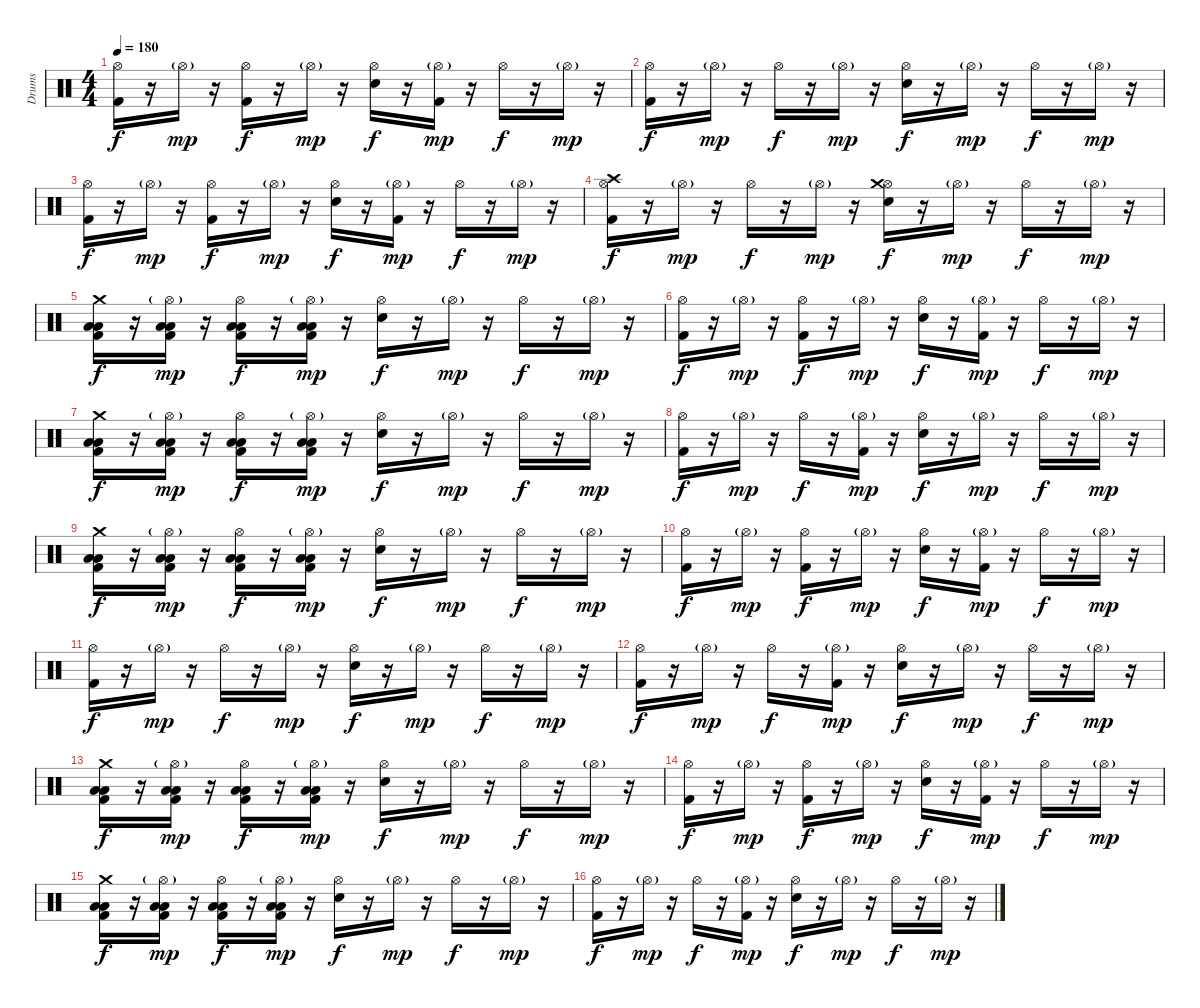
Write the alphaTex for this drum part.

\track ("Drums" "Drums") {instrument percussion}
\staff {score}
\articulation defaults
\ts (4 4)
\tempo 180
\clef neutral
\ks c
("Hi-Hat (open)" "Kick (hit) 2").16{dy f} r.16 "Hi-Hat (open)"{g}.16{dy mp} r.16 ("Hi-Hat (open)" "Kick (hit) 2").16{dy f} r.16 "Hi-Hat (open)"{g}.16{dy mp} r.16 ("Hi-Hat (open)" "Electric Snare (hit)").16{dy f} r.16 ("Hi-Hat (open)"{g} "Kick (hit) 2").16{dy mp} r.16 "Hi-Hat (open)".16{dy f} r.16 "Hi-Hat (open)"{g}.16{dy mp} r.16 |
("Hi-Hat (open)" "Kick (hit) 2").16{dy f} r.16 "Hi-Hat (open)"{g}.16{dy mp} r.16 "Hi-Hat (open)".16{dy f} r.16 "Hi-Hat (open)"{g}.16{dy mp} r.16 ("Hi-Hat (open)" "Electric Snare (hit)").16{dy f} r.16 "Hi-Hat (open)"{g}.16{dy mp} r.16 "Hi-Hat (open)".16{dy f} r.16 "Hi-Hat (open)"{g}.16{dy mp} r.16 |
("Hi-Hat (open)" "Kick (hit) 2").16{dy f} r.16 "Hi-Hat (open)"{g}.16{dy mp} r.16 ("Hi-Hat (open)" "Kick (hit) 2").16{dy f} r.16 "Hi-Hat (open)"{g}.16{dy mp} r.16 ("Hi-Hat (open)" "Electric Snare (hit)").16{dy f} r.16 ("Hi-Hat (open)"{g} "Kick (hit) 2").16{dy mp} r.16 "Hi-Hat (open)".16{dy f} r.16 "Hi-Hat (open)"{g}.16{dy mp} r.16 |
("Hi-Hat (open)" "Kick (hit) 2" "Crash high (hit)").16{dy f} r.16 "Hi-Hat (open)"{g}.16{dy mp} r.16 "Hi-Hat (open)".16{dy f} r.16 "Hi-Hat (open)"{g}.16{dy mp} r.16 ("Hi-Hat (open)" "Electric Snare (hit)" "Crash medium (hit)").16{dy f} r.16 "Hi-Hat (open)"{g}.16{dy mp} r.16 "Hi-Hat (open)".16{dy f} r.16 "Hi-Hat (open)"{g}.16{dy mp} r.16 |
("Crash medium (hit)" "Kick (hit) 2" "Low Floor Tom (hit)" "Low Tom (hit)").16{dy f} r.16 ("Hi-Hat (open)"{g} "Kick (hit) 2" "Low Floor Tom (hit)" "Low Tom (hit)").16{dy mp} r.16 ("Hi-Hat (open)" "Kick (hit) 2" "Low Floor Tom (hit)" "Low Tom (hit)").16{dy f} r.16 ("Hi-Hat (open)"{g} "Kick (hit) 2" "Low Floor Tom (hit)" "Low Tom (hit)").16{dy mp} r.16 ("Hi-Hat (open)" "Electric Snare (hit)").16{dy f} r.16 "Hi-Hat (open)"{g}.16{dy mp} r.16 "Hi-Hat (open)".16{dy f} r.16 "Hi-Hat (open)"{g}.16{dy mp} r.16 |
("Hi-Hat (open)" "Kick (hit) 2").16{dy f} r.16 "Hi-Hat (open)"{g}.16{dy mp} r.16 ("Hi-Hat (open)" "Kick (hit) 2").16{dy f} r.16 "Hi-Hat (open)"{g}.16{dy mp} r.16 ("Hi-Hat (open)" "Electric Snare (hit)").16{dy f} r.16 ("Hi-Hat (open)"{g} "Kick (hit) 2").16{dy mp} r.16 "Hi-Hat (open)".16{dy f} r.16 "Hi-Hat (open)"{g}.16{dy mp} r.16 |
("Crash medium (hit)" "Kick (hit) 2" "Low Floor Tom (hit)" "Low Tom (hit)").16{dy f} r.16 ("Hi-Hat (open)"{g} "Kick (hit) 2" "Low Floor Tom (hit)" "Low Tom (hit)").16{dy mp} r.16 ("Hi-Hat (open)" "Kick (hit) 2" "Low Floor Tom (hit)" "Low Tom (hit)").16{dy f} r.16 ("Hi-Hat (open)"{g} "Kick (hit) 2" "Low Floor Tom (hit)" "Low Tom (hit)").16{dy mp} r.16 ("Hi-Hat (open)" "Electric Snare (hit)").16{dy f} r.16 "Hi-Hat (open)"{g}.16{dy mp} r.16 "Hi-Hat (open)".16{dy f} r.16 "Hi-Hat (open)"{g}.16{dy mp} r.16 |
("Hi-Hat (open)" "Kick (hit) 2").16{dy f} r.16 "Hi-Hat (open)"{g}.16{dy mp} r.16 "Hi-Hat (open)".16{dy f} r.16 ("Hi-Hat (open)"{g} "Kick (hit) 2").16{dy mp} r.16 ("Hi-Hat (open)" "Electric Snare (hit)").16{dy f} r.16 "Hi-Hat (open)"{g}.16{dy mp} r.16 "Hi-Hat (open)".16{dy f} r.16 "Hi-Hat (open)"{g}.16{dy mp} r.16 |
("Crash medium (hit)" "Kick (hit) 2" "Low Floor Tom (hit)" "Low Tom (hit)").16{dy f} r.16 ("Hi-Hat (open)"{g} "Kick (hit) 2" "Low Floor Tom (hit)" "Low Tom (hit)").16{dy mp} r.16 ("Hi-Hat (open)" "Kick (hit) 2" "Low Floor Tom (hit)" "Low Tom (hit)").16{dy f} r.16 ("Hi-Hat (open)"{g} "Kick (hit) 2" "Low Floor Tom (hit)" "Low Tom (hit)").16{dy mp} r.16 ("Hi-Hat (open)" "Electric Snare (hit)").16{dy f} r.16 "Hi-Hat (open)"{g}.16{dy mp} r.16 "Hi-Hat (open)".16{dy f} r.16 "Hi-Hat (open)"{g}.16{dy mp} r.16 |
("Hi-Hat (open)" "Kick (hit) 2").16{dy f} r.16 "Hi-Hat (open)"{g}.16{dy mp} r.16 ("Hi-Hat (open)" "Kick (hit) 2").16{dy f} r.16 "Hi-Hat (open)"{g}.16{dy mp} r.16 ("Hi-Hat (open)" "Electric Snare (hit)").16{dy f} r.16 ("Hi-Hat (open)"{g} "Kick (hit) 2").16{dy mp} r.16 "Hi-Hat (open)".16{dy f} r.16 "Hi-Hat (open)"{g}.16{dy mp} r.16 |
("Hi-Hat (open)" "Kick (hit) 2").16{dy f} r.16 "Hi-Hat (open)"{g}.16{dy mp} r.16 "Hi-Hat (open)".16{dy f} r.16 "Hi-Hat (open)"{g}.16{dy mp} r.16 ("Hi-Hat (open)" "Electric Snare (hit)").16{dy f} r.16 "Hi-Hat (open)"{g}.16{dy mp} r.16 "Hi-Hat (open)".16{dy f} r.16 "Hi-Hat (open)"{g}.16{dy mp} r.16 |
("Hi-Hat (open)" "Kick (hit) 2").16{dy f} r.16 "Hi-Hat (open)"{g}.16{dy mp} r.16 "Hi-Hat (open)".16{dy f} r.16 ("Hi-Hat (open)"{g} "Kick (hit) 2").16{dy mp} r.16 ("Hi-Hat (open)" "Electric Snare (hit)").16{dy f} r.16 "Hi-Hat (open)"{g}.16{dy mp} r.16 "Hi-Hat (open)".16{dy f} r.16 "Hi-Hat (open)"{g}.16{dy mp} r.16 |
("Crash medium (hit)" "Kick (hit) 2" "Low Floor Tom (hit)" "Low Tom (hit)").16{dy f} r.16 ("Hi-Hat (open)"{g} "Kick (hit) 2" "Low Floor Tom (hit)" "Low Tom (hit)").16{dy mp} r.16 ("Hi-Hat (open)" "Kick (hit) 2" "Low Floor Tom (hit)" "Low Tom (hit)").16{dy f} r.16 ("Hi-Hat (open)"{g} "Kick (hit) 2" "Low Floor Tom (hit)" "Low Tom (hit)").16{dy mp} r.16 ("Hi-Hat (open)" "Electric Snare (hit)").16{dy f} r.16 "Hi-Hat (open)"{g}.16{dy mp} r.16 "Hi-Hat (open)".16{dy f} r.16 "Hi-Hat (open)"{g}.16{dy mp} r.16 |
("Hi-Hat (open)" "Kick (hit) 2").16{dy f} r.16 "Hi-Hat (open)"{g}.16{dy mp} r.16 ("Hi-Hat (open)" "Kick (hit) 2").16{dy f} r.16 "Hi-Hat (open)"{g}.16{dy mp} r.16 ("Hi-Hat (open)" "Electric Snare (hit)").16{dy f} r.16 ("Hi-Hat (open)"{g} "Kick (hit) 2").16{dy mp} r.16 "Hi-Hat (open)".16{dy f} r.16 "Hi-Hat (open)"{g}.16{dy mp} r.16 |
("Crash medium (hit)" "Kick (hit) 2" "Low Floor Tom (hit)" "Low Tom (hit)").16{dy f} r.16 ("Hi-Hat (open)"{g} "Kick (hit) 2" "Low Floor Tom (hit)" "Low Tom (hit)").16{dy mp} r.16 ("Hi-Hat (open)" "Kick (hit) 2" "Low Floor Tom (hit)" "Low Tom (hit)").16{dy f} r.16 ("Hi-Hat (open)"{g} "Kick (hit) 2" "Low Floor Tom (hit)" "Low Tom (hit)").16{dy mp} r.16 ("Hi-Hat (open)" "Electric Snare (hit)").16{dy f} r.16 "Hi-Hat (open)"{g}.16{dy mp} r.16 "Hi-Hat (open)".16{dy f} r.16 "Hi-Hat (open)"{g}.16{dy mp} r.16 |
("Hi-Hat (open)" "Kick (hit) 2").16{dy f} r.16 "Hi-Hat (open)"{g}.16{dy mp} r.16 "Hi-Hat (open)".16{dy f} r.16 ("Hi-Hat (open)"{g} "Kick (hit) 2").16{dy mp} r.16 ("Hi-Hat (open)" "Electric Snare (hit)").16{dy f} r.16 "Hi-Hat (open)"{g}.16{dy mp} r.16 "Hi-Hat (open)".16{dy f} r.16 "Hi-Hat (open)"{g}.16{dy mp} r.16
